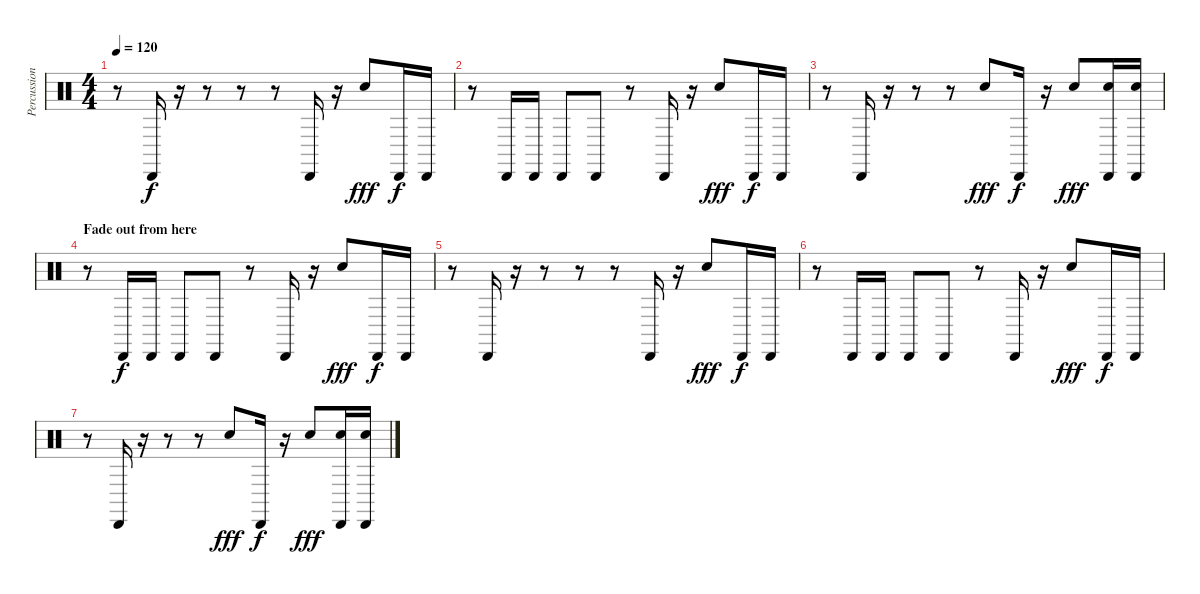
\track ("Percussion" "Percussion") {instrument percussion}
\staff {score}
\articulation defaults
\ts (4 4)
\tempo 120
\clef neutral
\ks c
r.8{dy f} "Cabasa (hit)".16 r.16 r.8 r.8 r.8 "Cabasa (hit)".16 r.16 "Hand Clap (hit)".8{dy fff} "Cabasa (hit)".16{dy f} "Cabasa (hit)".16 |
r.8 "Cabasa (hit)".16 "Cabasa (hit)".16 "Cabasa (hit)".8 "Cabasa (hit)".8 r.8 "Cabasa (hit)".16 r.16 "Hand Clap (hit)".8{dy fff} "Cabasa (hit)".16{dy f} "Cabasa (hit)".16 |
r.8 "Cabasa (hit)".16 r.16 r.8 r.8 "Hand Clap (hit)".8{dy fff} "Cabasa (hit)".16{dy f} r.16 "Hand Clap (hit)".8{dy fff} ("Cabasa (hit)" "Hand Clap (hit)").16 ("Cabasa (hit)" "Hand Clap (hit)").16 |
\section ("" "Fade out from here")
r.8{volume 6} "Cabasa (hit)".16{dy f} "Cabasa (hit)".16 "Cabasa (hit)".8 "Cabasa (hit)".8 r.8 "Cabasa (hit)".16 r.16 "Hand Clap (hit)".8{dy fff} "Cabasa (hit)".16{dy f} "Cabasa (hit)".16 |
r.8 "Cabasa (hit)".16 r.16 r.8 r.8 r.8 "Cabasa (hit)".16 r.16 "Hand Clap (hit)".8{dy fff} "Cabasa (hit)".16{dy f} "Cabasa (hit)".16 |
r.8 "Cabasa (hit)".16{volume 0} "Cabasa (hit)".16 "Cabasa (hit)".8 "Cabasa (hit)".8 r.8 "Cabasa (hit)".16 r.16 "Hand Clap (hit)".8{dy fff} "Cabasa (hit)".16{dy f} "Cabasa (hit)".16 |
r.8 "Cabasa (hit)".16 r.16 r.8 r.8 "Hand Clap (hit)".8{dy fff} "Cabasa (hit)".16{dy f} r.16 "Hand Clap (hit)".8{dy fff} ("Cabasa (hit)" "Hand Clap (hit)").16 ("Cabasa (hit)" "Hand Clap (hit)").16
